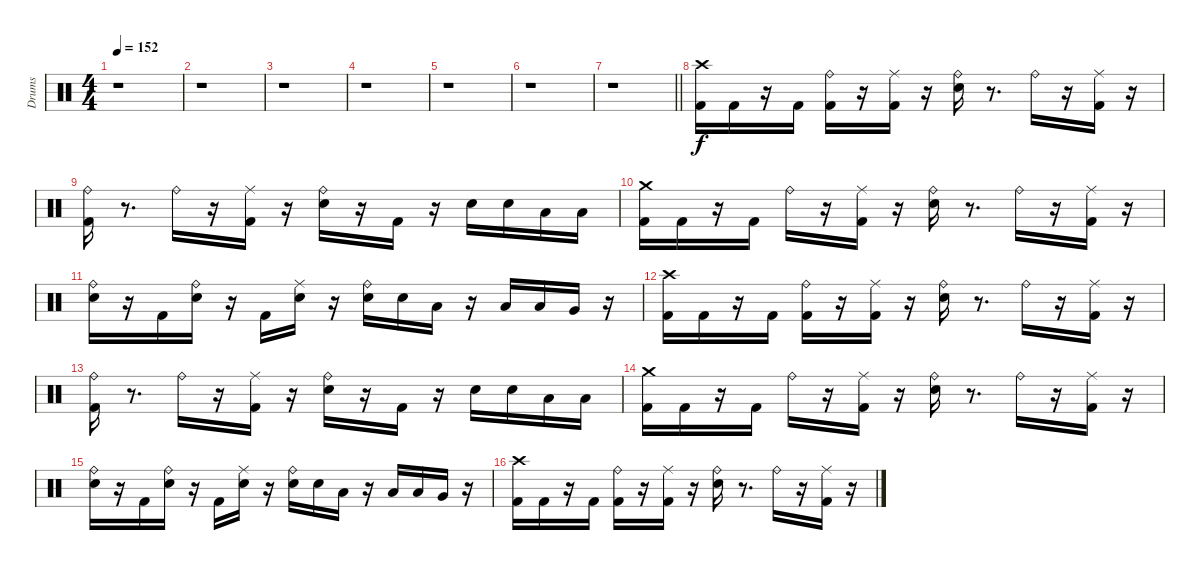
\track ("Drums" "Drums") {instrument percussion}
\staff {score}
\articulation defaults
\ts (4 4)
\tempo 152
\clef neutral
\ks c
r.1{dy f} |
r.1 |
r.1 |
r.1 |
r.1 |
r.1 |
\barLineRight lightlight
r.1 |
\section ("" " ")
("Kick (hit) 2" "Crash high (hit)").16 "Kick (hit) 2".16 r.16 "Kick (hit) 2".16 ("Kick (hit) 2" "Ride (bell)").16 r.16 ("Kick (hit) 2" "Ride (middle)").16 r.16 ("Snare (hit) 2" "Ride (bell)").16 r.8{d} "Ride (bell)".16 r.16 ("Kick (hit) 2" "Ride (middle)").16 r.16 |
("Kick (hit) 2" "Ride (bell)").16 r.8{d} "Ride (bell)".16 r.16 ("Kick (hit) 2" "Ride (middle)").16 r.16 ("Snare (hit) 2" "Ride (bell)").16 r.16 "Kick (hit) 2".16 r.16 "Snare (hit) 2".16 "Snare (hit) 2".16 "Low Tom (hit)".16 "Low Tom (hit)".16 |
("Kick (hit) 2" "Crash medium (hit)").16 "Kick (hit) 2".16 r.16 "Kick (hit) 2".16 "Ride (bell)".16 r.16 ("Kick (hit) 2" "Ride (middle)").16 r.16 ("Snare (hit) 2" "Ride (bell)").16 r.8{d} "Ride (bell)".16 r.16 ("Kick (hit) 2" "Ride (middle)").16 r.16 |
("Snare (hit) 2" "Ride (bell)").16 r.16 "Kick (hit) 2".16 ("Snare (hit) 2" "Ride (bell)").16 r.16 "Kick (hit) 2".16 ("Snare (hit) 2" "Ride (middle)").16 r.16 ("Snare (hit) 2" "Ride (bell)").16 "Snare (hit) 2".16 "Low Tom (hit)".16 r.16 "Low Tom (hit)".16 "Low Tom (hit)".16 "Very Low Tom (hit)".16 r.16 |
("Kick (hit) 2" "Crash high (hit)").16 "Kick (hit) 2".16 r.16 "Kick (hit) 2".16 ("Kick (hit) 2" "Ride (bell)").16 r.16 ("Kick (hit) 2" "Ride (middle)").16 r.16 ("Snare (hit) 2" "Ride (bell)").16 r.8{d} "Ride (bell)".16 r.16 ("Kick (hit) 2" "Ride (middle)").16 r.16 |
("Kick (hit) 2" "Ride (bell)").16 r.8{d} "Ride (bell)".16 r.16 ("Kick (hit) 2" "Ride (middle)").16 r.16 ("Snare (hit) 2" "Ride (bell)").16 r.16 "Kick (hit) 2".16 r.16 "Snare (hit) 2".16 "Snare (hit) 2".16 "Low Tom (hit)".16 "Low Tom (hit)".16 |
("Kick (hit) 2" "Crash medium (hit)").16 "Kick (hit) 2".16 r.16 "Kick (hit) 2".16 "Ride (bell)".16 r.16 ("Kick (hit) 2" "Ride (middle)").16 r.16 ("Snare (hit) 2" "Ride (bell)").16 r.8{d} "Ride (bell)".16 r.16 ("Kick (hit) 2" "Ride (middle)").16 r.16 |
("Snare (hit) 2" "Ride (bell)").16 r.16 "Kick (hit) 2".16 ("Snare (hit) 2" "Ride (bell)").16 r.16 "Kick (hit) 2".16 ("Snare (hit) 2" "Ride (middle)").16 r.16 ("Snare (hit) 2" "Ride (bell)").16 "Snare (hit) 2".16 "Low Tom (hit)".16 r.16 "Low Tom (hit)".16 "Low Tom (hit)".16 "Very Low Tom (hit)".16 r.16 |
("Kick (hit) 2" "Crash high (hit)").16 "Kick (hit) 2".16 r.16 "Kick (hit) 2".16 ("Kick (hit) 2" "Ride (bell)").16 r.16 ("Kick (hit) 2" "Ride (middle)").16 r.16 ("Snare (hit) 2" "Ride (bell)").16 r.8{d} "Ride (bell)".16 r.16 ("Kick (hit) 2" "Ride (middle)").16 r.16
